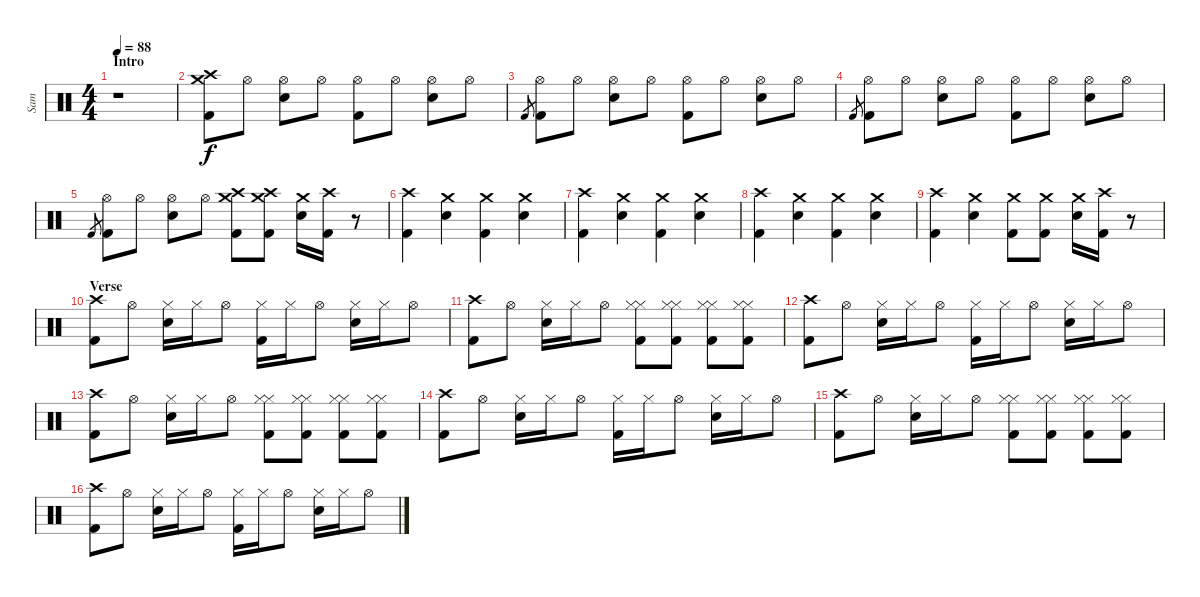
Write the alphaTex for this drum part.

\track ("Sam" "Sam") {instrument percussion}
\staff {score}
\articulation defaults
\ts (4 4)
\section ("" "Intro")
\tempo 88
\clef neutral
\ks c
r.1{dy f} |
("Crash medium (hit)" "Crash high (hit)" "Kick (hit) 2").8 "Hi-Hat (open)".8 ("Hi-Hat (open)" "Electric Snare (hit)").8 "Hi-Hat (open)".8 ("Hi-Hat (open)" "Kick (hit) 2").8 "Hi-Hat (open)".8 ("Hi-Hat (open)" "Electric Snare (hit)").8 "Hi-Hat (open)".8 |
"Kick (hit) 2".8{gr} ("Hi-Hat (open)" "Kick (hit) 2").8 "Hi-Hat (open)".8 ("Hi-Hat (open)" "Electric Snare (hit)").8 "Hi-Hat (open)".8 ("Hi-Hat (open)" "Kick (hit) 2").8 "Hi-Hat (open)".8 ("Hi-Hat (open)" "Electric Snare (hit)").8 "Hi-Hat (open)".8 |
"Kick (hit) 2".8{gr} ("Hi-Hat (open)" "Kick (hit) 2").8 "Hi-Hat (open)".8 ("Hi-Hat (open)" "Electric Snare (hit)").8 "Hi-Hat (open)".8 ("Hi-Hat (open)" "Kick (hit) 2").8 "Hi-Hat (open)".8 ("Hi-Hat (open)" "Electric Snare (hit)").8 "Hi-Hat (open)".8 |
"Kick (hit) 2".8{gr} ("Hi-Hat (open)" "Kick (hit) 2").8 "Hi-Hat (open)".8 ("Hi-Hat (open)" "Electric Snare (hit)").8 "Hi-Hat (open)".8 ("Crash high (hit)" "Crash medium (hit)" "Kick (hit) 2").8 ("Crash high (hit)" "Crash medium (hit)" "Kick (hit) 2").8 ("Crash medium (hit)" "Electric Snare (hit)").16 ("Crash high (hit)" "Kick (hit) 2").16 r.8 |
("Crash high (hit)" "Kick (hit) 2").4 ("Crash medium (hit)" "Electric Snare (hit)").4 ("Crash medium (hit)" "Kick (hit) 2").4 ("Crash medium (hit)" "Electric Snare (hit)").4 |
("Crash high (hit)" "Kick (hit) 2").4 ("Crash medium (hit)" "Electric Snare (hit)").4 ("Crash medium (hit)" "Kick (hit) 2").4 ("Crash medium (hit)" "Electric Snare (hit)").4 |
("Crash high (hit)" "Kick (hit) 2").4 ("Crash medium (hit)" "Electric Snare (hit)").4 ("Crash medium (hit)" "Kick (hit) 2").4 ("Crash medium (hit)" "Electric Snare (hit)").4 |
("Crash high (hit)" "Kick (hit) 2").4 ("Crash medium (hit)" "Electric Snare (hit)").4 ("Crash medium (hit)" "Kick (hit) 2").8 ("Crash medium (hit)" "Kick (hit) 2").8 ("Crash medium (hit)" "Electric Snare (hit)").16 ("Crash high (hit)" "Kick (hit) 2").16 r.8 |
\section ("" "Verse")
("Crash high (hit)" "Kick (hit) 2").8 "Hi-Hat (open)".8 ("Hi-Hat (closed)" "Electric Snare (hit)").16 "Hi-Hat (closed)".16 "Hi-Hat (open)".8 ("Hi-Hat (closed)" "Kick (hit) 2").16 "Hi-Hat (closed)".16 "Hi-Hat (open)".8 ("Hi-Hat (closed)" "Electric Snare (hit)").16 "Hi-Hat (closed)".16 "Hi-Hat (open)".8 |
("Crash high (hit)" "Kick (hit) 2").8 "Hi-Hat (open)".8 ("Hi-Hat (closed)" "Electric Snare (hit)").16 "Hi-Hat (closed)".16 "Hi-Hat (open)".8 ("Hi-Hat (closed)" "Hi-Hat (closed)" "Kick (hit) 2").8 ("Hi-Hat (closed)" "Hi-Hat (closed)" "Kick (hit) 2").8 ("Hi-Hat (closed)" "Hi-Hat (closed)" "Kick (hit) 2").8 ("Hi-Hat (closed)" "Hi-Hat (closed)" "Kick (hit) 2").8 |
("Crash high (hit)" "Kick (hit) 2").8 "Hi-Hat (open)".8 ("Hi-Hat (closed)" "Electric Snare (hit)").16 "Hi-Hat (closed)".16 "Hi-Hat (open)".8 ("Hi-Hat (closed)" "Kick (hit) 2").16 "Hi-Hat (closed)".16 "Hi-Hat (open)".8 ("Hi-Hat (closed)" "Electric Snare (hit)").16 "Hi-Hat (closed)".16 "Hi-Hat (open)".8 |
("Crash high (hit)" "Kick (hit) 2").8 "Hi-Hat (open)".8 ("Hi-Hat (closed)" "Electric Snare (hit)").16 "Hi-Hat (closed)".16 "Hi-Hat (open)".8 ("Hi-Hat (closed)" "Hi-Hat (closed)" "Kick (hit) 2").8 ("Hi-Hat (closed)" "Hi-Hat (closed)" "Kick (hit) 2").8 ("Hi-Hat (closed)" "Hi-Hat (closed)" "Kick (hit) 2").8 ("Hi-Hat (closed)" "Hi-Hat (closed)" "Kick (hit) 2").8 |
("Crash high (hit)" "Kick (hit) 2").8 "Hi-Hat (open)".8 ("Hi-Hat (closed)" "Electric Snare (hit)").16 "Hi-Hat (closed)".16 "Hi-Hat (open)".8 ("Hi-Hat (closed)" "Kick (hit) 2").16 "Hi-Hat (closed)".16 "Hi-Hat (open)".8 ("Hi-Hat (closed)" "Electric Snare (hit)").16 "Hi-Hat (closed)".16 "Hi-Hat (open)".8 |
("Crash high (hit)" "Kick (hit) 2").8 "Hi-Hat (open)".8 ("Hi-Hat (closed)" "Electric Snare (hit)").16 "Hi-Hat (closed)".16 "Hi-Hat (open)".8 ("Hi-Hat (closed)" "Hi-Hat (closed)" "Kick (hit) 2").8 ("Hi-Hat (closed)" "Hi-Hat (closed)" "Kick (hit) 2").8 ("Hi-Hat (closed)" "Hi-Hat (closed)" "Kick (hit) 2").8 ("Hi-Hat (closed)" "Hi-Hat (closed)" "Kick (hit) 2").8 |
("Crash high (hit)" "Kick (hit) 2").8 "Hi-Hat (open)".8 ("Hi-Hat (closed)" "Electric Snare (hit)").16 "Hi-Hat (closed)".16 "Hi-Hat (open)".8 ("Hi-Hat (closed)" "Kick (hit) 2").16 "Hi-Hat (closed)".16 "Hi-Hat (open)".8 ("Hi-Hat (closed)" "Electric Snare (hit)").16 "Hi-Hat (closed)".16 "Hi-Hat (open)".8
